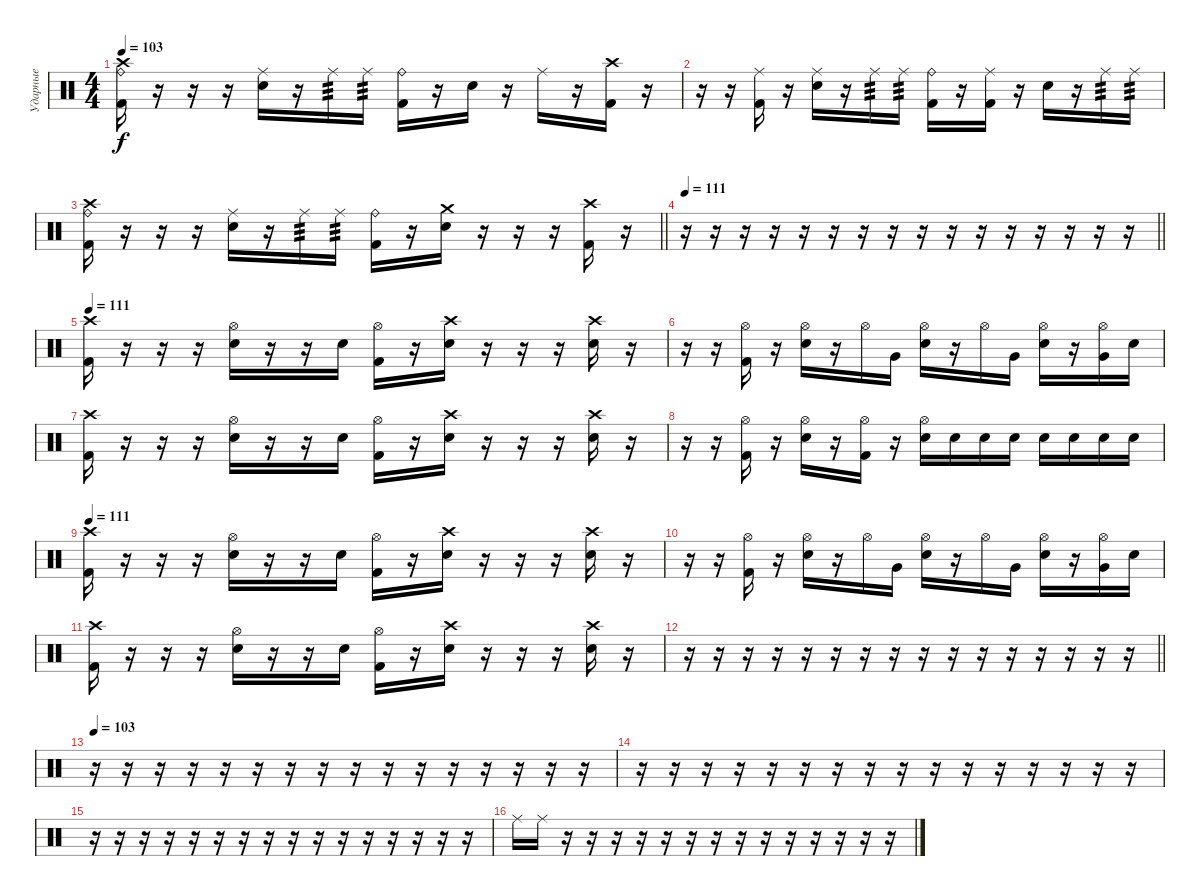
\track ("Ударные" "Ударные") {instrument percussion}
\staff {score}
\articulation defaults
\ts (4 4)
\tempo 103
\clef neutral
\ks c
("Crash high (hit)" "Ride (bell)" "Kick (hit) 2").16{dy f} r.16 r.16 r.16 ("Ride (middle)" "Electric Snare (hit)").16 r.16 "Ride (middle)".16{tp 3} "Ride (middle)".16{tp 3} ("Ride (bell)" "Kick (hit) 2").16 r.16 "Electric Snare (hit)".16 r.16 "Ride (middle)".16 r.16 ("Crash high (hit)" "Kick (hit) 2").16 r.16 |
r.16 r.16 ("Ride (middle)" "Kick (hit) 2").16 r.16 ("Ride (middle)" "Electric Snare (hit)").16 r.16 "Ride (middle)".16{tp 3} "Ride (middle)".16{tp 3} ("Ride (bell)" "Kick (hit) 2").16 r.16 ("Ride (middle)" "Kick (hit) 2").16 r.16 "Electric Snare (hit)".16 r.16 "Ride (middle)".16{tp 3} "Ride (middle)".16{tp 3} |
\barLineRight lightlight
("Crash high (hit)" "Ride (bell)" "Kick (hit) 2").16 r.16 r.16 r.16 ("Ride (middle)" "Electric Snare (hit)").16 r.16 "Ride (middle)".16{tp 3} "Ride (middle)".16{tp 3} ("Ride (bell)" "Kick (hit) 2").16 r.16 ("Crash medium (hit)" "Electric Snare (hit)").16 r.16 r.16 r.16 ("Crash high (hit)" "Kick (hit) 2").16 r.16 |
\tempo 111
\barLineRight lightlight
r.16 r.16 r.16 r.16 r.16 r.16 r.16 r.16 r.16 r.16 r.16 r.16 r.16 r.16 r.16 r.16 |
\tempo 111
("Crash high (hit)" "Kick (hit) 2").16 r.16 r.16 r.16 ("Hi-Hat (open)" "Electric Snare (hit)").16 r.16 r.16 "Electric Snare (hit)".16 ("Hi-Hat (open)" "Kick (hit) 2").16 r.16 ("Crash high (hit)" "Electric Snare (hit)").16 r.16 r.16 r.16 ("Crash high (hit)" "Electric Snare (hit)").16 r.16 |
r.16 r.16 ("Hi-Hat (open)" "Kick (hit) 2").16 r.16 ("Hi-Hat (open)" "Electric Snare (hit)").16 r.16 "Hi-Hat (open)".16 "Very Low Tom (hit)".16 ("Hi-Hat (open)" "Electric Snare (hit)").16 r.16 "Hi-Hat (open)".16 "Very Low Tom (hit)".16 ("Hi-Hat (open)" "Electric Snare (hit)").16 r.16 ("Hi-Hat (open)" "Very Low Tom (hit)").16 "Electric Snare (hit)".16 |
("Crash high (hit)" "Kick (hit) 2").16 r.16 r.16 r.16 ("Hi-Hat (open)" "Electric Snare (hit)").16 r.16 r.16 "Electric Snare (hit)".16 ("Hi-Hat (open)" "Kick (hit) 2").16 r.16 ("Crash high (hit)" "Electric Snare (hit)").16 r.16 r.16 r.16 ("Crash high (hit)" "Electric Snare (hit)").16 r.16 |
r.16 r.16 ("Hi-Hat (open)" "Kick (hit) 2").16 r.16 ("Hi-Hat (open)" "Electric Snare (hit)").16 r.16 ("Hi-Hat (open)" "Kick (hit) 2").16 r.16 ("Hi-Hat (open)" "Electric Snare (hit)").16 "Electric Snare (hit)".16 "Electric Snare (hit)".16 "Electric Snare (hit)".16 "Electric Snare (hit)".16 "Electric Snare (hit)".16 "Electric Snare (hit)".16 "Electric Snare (hit)".16 |
\tempo 111
("Crash high (hit)" "Kick (hit) 2").16 r.16 r.16 r.16 ("Hi-Hat (open)" "Electric Snare (hit)").16 r.16 r.16 "Electric Snare (hit)".16 ("Hi-Hat (open)" "Kick (hit) 2").16 r.16 ("Crash high (hit)" "Electric Snare (hit)").16 r.16 r.16 r.16 ("Crash high (hit)" "Electric Snare (hit)").16 r.16 |
r.16 r.16 ("Hi-Hat (open)" "Kick (hit) 2").16 r.16 ("Hi-Hat (open)" "Electric Snare (hit)").16 r.16 "Hi-Hat (open)".16 "Very Low Tom (hit)".16 ("Hi-Hat (open)" "Electric Snare (hit)").16 r.16 "Hi-Hat (open)".16 "Very Low Tom (hit)".16 ("Hi-Hat (open)" "Electric Snare (hit)").16 r.16 ("Hi-Hat (open)" "Very Low Tom (hit)").16 "Electric Snare (hit)".16 |
("Crash high (hit)" "Kick (hit) 2").16 r.16 r.16 r.16 ("Hi-Hat (open)" "Electric Snare (hit)").16 r.16 r.16 "Electric Snare (hit)".16 ("Hi-Hat (open)" "Kick (hit) 2").16 r.16 ("Crash high (hit)" "Electric Snare (hit)").16 r.16 r.16 r.16 ("Crash high (hit)" "Electric Snare (hit)").16 r.16 |
\barLineRight lightlight
r.16 r.16 r.16 r.16 r.16 r.16 r.16 r.16 r.16 r.16 r.16 r.16 r.16 r.16 r.16 r.16 |
\tempo 103
r.16 r.16 r.16 r.16 r.16 r.16 r.16 r.16 r.16 r.16 r.16 r.16 r.16 r.16 r.16 r.16 |
r.16 r.16 r.16 r.16 r.16 r.16 r.16 r.16 r.16 r.16 r.16 r.16 r.16 r.16 r.16 r.16 |
r.16 r.16 r.16 r.16 r.16 r.16 r.16 r.16 r.16 r.16 r.16 r.16 r.16 r.16 r.16 r.16 |
"Ride (middle)".16 "Ride (middle)".16 r.16 r.16 r.16 r.16 r.16 r.16 r.16 r.16 r.16 r.16 r.16 r.16 r.16 r.16
